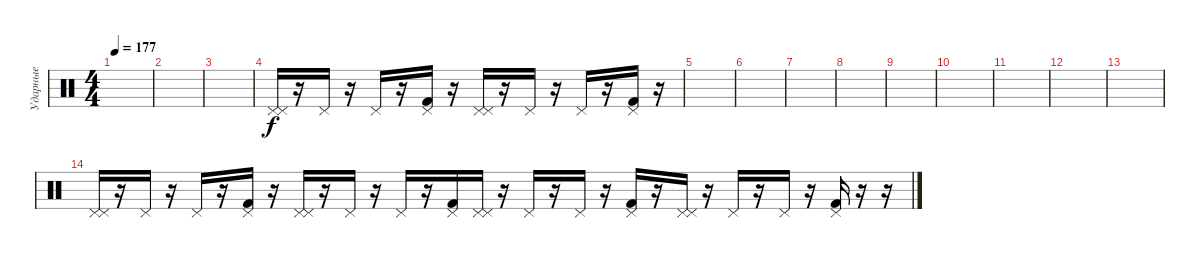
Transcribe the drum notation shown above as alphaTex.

\track ("Ударные" "Ударные") {instrument percussion}
\staff {score}
\articulation defaults
\ts (4 4)
\tempo 177
\clef neutral
\ks c
|
|
|
("Pedal Hi-Hat (hit)" "Pedal Hi-Hat (hit)").16 r.16 "Pedal Hi-Hat (hit)".16 r.16 "Pedal Hi-Hat (hit)".16 r.16 ("Kick (hit) 2" "Pedal Hi-Hat (hit)").16 r.16 ("Pedal Hi-Hat (hit)" "Pedal Hi-Hat (hit)").16 r.16 "Pedal Hi-Hat (hit)".16 r.16 "Pedal Hi-Hat (hit)".16 r.16 ("Kick (hit) 2" "Pedal Hi-Hat (hit)").16 r.16 |
|
|
|
|
|
|
|
|
|
("Pedal Hi-Hat (hit)" "Pedal Hi-Hat (hit)").16 r.16 "Pedal Hi-Hat (hit)".16 r.16 "Pedal Hi-Hat (hit)".16 r.16 ("Kick (hit) 2" "Pedal Hi-Hat (hit)").16 r.16 ("Pedal Hi-Hat (hit)" "Pedal Hi-Hat (hit)").16 r.16 "Pedal Hi-Hat (hit)".16 r.16 "Pedal Hi-Hat (hit)".16 r.16 ("Kick (hit) 2" "Pedal Hi-Hat (hit)").16 ("Pedal Hi-Hat (hit)" "Pedal Hi-Hat (hit)").16 r.16 "Pedal Hi-Hat (hit)".16 r.16 "Pedal Hi-Hat (hit)".16 r.16 ("Kick (hit) 2" "Pedal Hi-Hat (hit)").16 r.16 ("Pedal Hi-Hat (hit)" "Pedal Hi-Hat (hit)").16 r.16 "Pedal Hi-Hat (hit)".16 r.16 "Pedal Hi-Hat (hit)".16 r.16 ("Kick (hit) 2" "Pedal Hi-Hat (hit)").16 r.16 r.16
